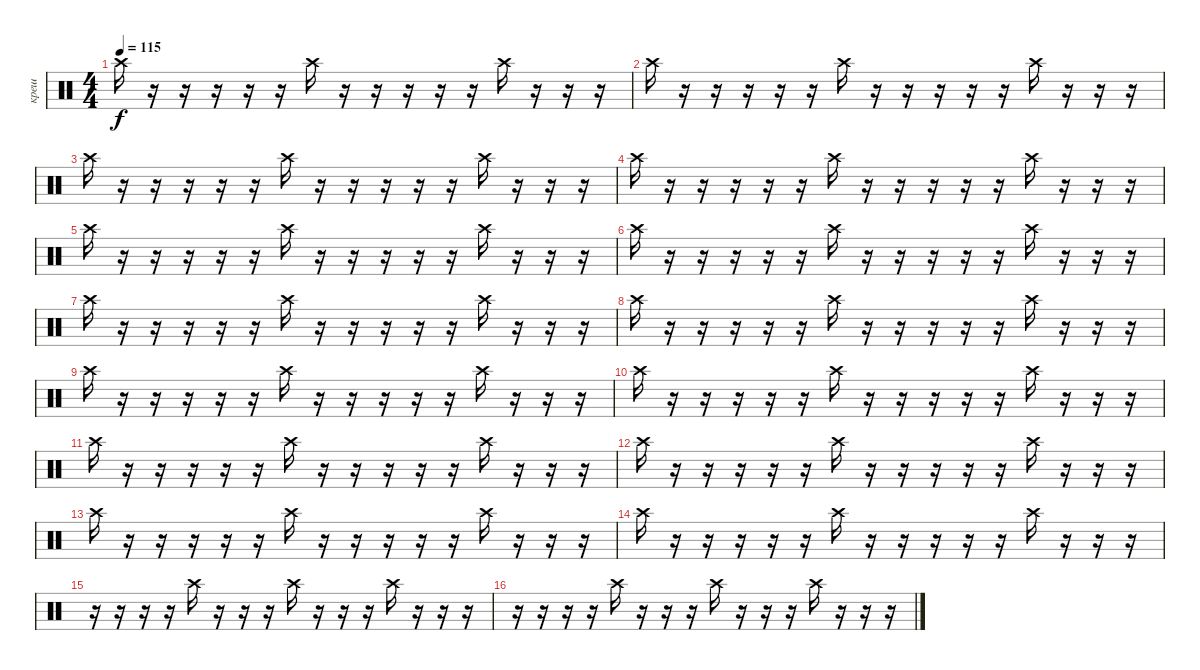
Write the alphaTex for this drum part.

\track ("креш" "креш") {mute instrument percussion}
\staff {score}
\articulation defaults
\ts (4 4)
\tempo 115
\clef neutral
\ks c "Crash high (hit)".16{dy f}
r.16 r.16 r.16 r.16 r.16 "Crash high (hit)".16 r.16 r.16 r.16 r.16 r.16 "Crash high (hit)".16 r.16 r.16 r.16 |
"Crash high (hit)".16 r.16 r.16 r.16 r.16 r.16 "Crash high (hit)".16 r.16 r.16 r.16 r.16 r.16 "Crash high (hit)".16 r.16 r.16 r.16 |
"Crash high (hit)".16 r.16 r.16 r.16 r.16 r.16 "Crash high (hit)".16 r.16 r.16 r.16 r.16 r.16 "Crash high (hit)".16 r.16 r.16 r.16 |
"Crash high (hit)".16 r.16 r.16 r.16 r.16 r.16 "Crash high (hit)".16 r.16 r.16 r.16 r.16 r.16 "Crash high (hit)".16 r.16 r.16 r.16 |
"Crash high (hit)".16 r.16 r.16 r.16 r.16 r.16 "Crash high (hit)".16 r.16 r.16 r.16 r.16 r.16 "Crash high (hit)".16 r.16 r.16 r.16 |
"Crash high (hit)".16 r.16 r.16 r.16 r.16 r.16 "Crash high (hit)".16 r.16 r.16 r.16 r.16 r.16 "Crash high (hit)".16 r.16 r.16 r.16 |
"Crash high (hit)".16 r.16 r.16 r.16 r.16 r.16 "Crash high (hit)".16 r.16 r.16 r.16 r.16 r.16 "Crash high (hit)".16 r.16 r.16 r.16 |
"Crash high (hit)".16 r.16 r.16 r.16 r.16 r.16 "Crash high (hit)".16 r.16 r.16 r.16 r.16 r.16 "Crash high (hit)".16 r.16 r.16 r.16 |
"Crash high (hit)".16 r.16 r.16 r.16 r.16 r.16 "Crash high (hit)".16 r.16 r.16 r.16 r.16 r.16 "Crash high (hit)".16 r.16 r.16 r.16 |
"Crash high (hit)".16 r.16 r.16 r.16 r.16 r.16 "Crash high (hit)".16 r.16 r.16 r.16 r.16 r.16 "Crash high (hit)".16 r.16 r.16 r.16 |
"Crash high (hit)".16 r.16 r.16 r.16 r.16 r.16 "Crash high (hit)".16 r.16 r.16 r.16 r.16 r.16 "Crash high (hit)".16 r.16 r.16 r.16 |
"Crash high (hit)".16 r.16 r.16 r.16 r.16 r.16 "Crash high (hit)".16 r.16 r.16 r.16 r.16 r.16 "Crash high (hit)".16 r.16 r.16 r.16 |
"Crash high (hit)".16 r.16 r.16 r.16 r.16 r.16 "Crash high (hit)".16 r.16 r.16 r.16 r.16 r.16 "Crash high (hit)".16 r.16 r.16 r.16 |
"Crash high (hit)".16 r.16 r.16 r.16 r.16 r.16 "Crash high (hit)".16 r.16 r.16 r.16 r.16 r.16 "Crash high (hit)".16 r.16 r.16 r.16 |
r.16 r.16 r.16 r.16 "Crash high (hit)".16 r.16 r.16 r.16 "Crash high (hit)".16 r.16 r.16 r.16 "Crash high (hit)".16 r.16 r.16 r.16 |
r.16 r.16 r.16 r.16 "Crash high (hit)".16 r.16 r.16 r.16 "Crash high (hit)".16 r.16 r.16 r.16 "Crash high (hit)".16 r.16 r.16 r.16
